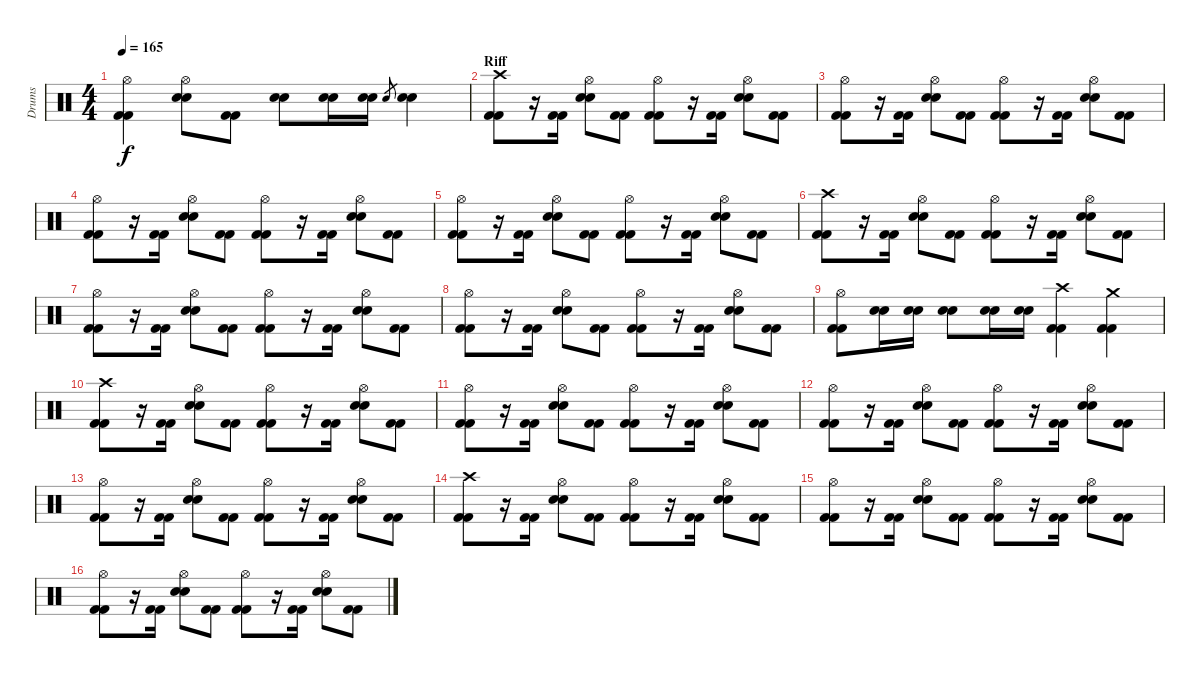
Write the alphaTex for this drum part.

\track ("Drums" "Drums") {instrument percussion}
\staff {score}
\articulation defaults
\ts (4 4)
\tempo 165
\clef neutral
\ks c
("Hi-Hat (open)" "Kick (hit) 2" "Kick (hit) 2").4{dy f} ("Hi-Hat (open)" "Snare (hit) 2" "Snare (hit) 2").8 ("Kick (hit) 2" "Kick (hit) 2").8 ("Snare (hit) 2" "Snare (hit) 2").8 ("Snare (hit) 2" "Snare (hit) 2").16 ("Snare (hit) 2" "Snare (hit) 2").16 "Snare (hit) 2".8{gr} ("Snare (hit) 2" "Snare (hit) 2").4 |
\section ("" "Riff")
("Crash high (hit)" "Kick (hit) 2" "Kick (hit) 2").8 r.16 ("Kick (hit) 2" "Kick (hit) 2").16 ("Hi-Hat (open)" "Snare (hit) 2" "Snare (hit) 2").8 ("Kick (hit) 2" "Kick (hit) 2").8 ("Hi-Hat (open)" "Kick (hit) 2" "Kick (hit) 2").8 r.16 ("Kick (hit) 2" "Kick (hit) 2").16 ("Hi-Hat (open)" "Snare (hit) 2" "Snare (hit) 2").8 ("Kick (hit) 2" "Kick (hit) 2").8 |
("Hi-Hat (open)" "Kick (hit) 2" "Kick (hit) 2").8 r.16 ("Kick (hit) 2" "Kick (hit) 2").16 ("Hi-Hat (open)" "Snare (hit) 2" "Snare (hit) 2").8 ("Kick (hit) 2" "Kick (hit) 2").8 ("Hi-Hat (open)" "Kick (hit) 2" "Kick (hit) 2").8 r.16 ("Kick (hit) 2" "Kick (hit) 2").16 ("Hi-Hat (open)" "Snare (hit) 2" "Snare (hit) 2").8 ("Kick (hit) 2" "Kick (hit) 2").8 |
("Hi-Hat (open)" "Kick (hit) 2" "Kick (hit) 2").8 r.16 ("Kick (hit) 2" "Kick (hit) 2").16 ("Hi-Hat (open)" "Snare (hit) 2" "Snare (hit) 2").8 ("Kick (hit) 2" "Kick (hit) 2").8 ("Hi-Hat (open)" "Kick (hit) 2" "Kick (hit) 2").8 r.16 ("Kick (hit) 2" "Kick (hit) 2").16 ("Hi-Hat (open)" "Snare (hit) 2" "Snare (hit) 2").8 ("Kick (hit) 2" "Kick (hit) 2").8 |
("Hi-Hat (open)" "Kick (hit) 2" "Kick (hit) 2").8 r.16 ("Kick (hit) 2" "Kick (hit) 2").16 ("Hi-Hat (open)" "Snare (hit) 2" "Snare (hit) 2").8 ("Kick (hit) 2" "Kick (hit) 2").8 ("Hi-Hat (open)" "Kick (hit) 2" "Kick (hit) 2").8 r.16 ("Kick (hit) 2" "Kick (hit) 2").16 ("Hi-Hat (open)" "Snare (hit) 2" "Snare (hit) 2").8 ("Kick (hit) 2" "Kick (hit) 2").8 |
("Crash high (hit)" "Kick (hit) 2" "Kick (hit) 2").8 r.16 ("Kick (hit) 2" "Kick (hit) 2").16 ("Hi-Hat (open)" "Snare (hit) 2" "Snare (hit) 2").8 ("Kick (hit) 2" "Kick (hit) 2").8 ("Hi-Hat (open)" "Kick (hit) 2" "Kick (hit) 2").8 r.16 ("Kick (hit) 2" "Kick (hit) 2").16 ("Hi-Hat (open)" "Snare (hit) 2" "Snare (hit) 2").8 ("Kick (hit) 2" "Kick (hit) 2").8 |
("Hi-Hat (open)" "Kick (hit) 2" "Kick (hit) 2").8 r.16 ("Kick (hit) 2" "Kick (hit) 2").16 ("Hi-Hat (open)" "Snare (hit) 2" "Snare (hit) 2").8 ("Kick (hit) 2" "Kick (hit) 2").8 ("Hi-Hat (open)" "Kick (hit) 2" "Kick (hit) 2").8 r.16 ("Kick (hit) 2" "Kick (hit) 2").16 ("Hi-Hat (open)" "Snare (hit) 2" "Snare (hit) 2").8 ("Kick (hit) 2" "Kick (hit) 2").8 |
("Hi-Hat (open)" "Kick (hit) 2" "Kick (hit) 2").8 r.16 ("Kick (hit) 2" "Kick (hit) 2").16 ("Hi-Hat (open)" "Snare (hit) 2" "Snare (hit) 2").8 ("Kick (hit) 2" "Kick (hit) 2").8 ("Hi-Hat (open)" "Kick (hit) 2" "Kick (hit) 2").8 r.16 ("Kick (hit) 2" "Kick (hit) 2").16 ("Hi-Hat (open)" "Snare (hit) 2" "Snare (hit) 2").8 ("Kick (hit) 2" "Kick (hit) 2").8 |
("Hi-Hat (open)" "Kick (hit) 2" "Kick (hit) 2").8 ("Snare (hit) 2" "Snare (hit) 2").16 ("Snare (hit) 2" "Snare (hit) 2").16 ("Snare (hit) 2" "Snare (hit) 2").8 ("Snare (hit) 2" "Snare (hit) 2").16 ("Snare (hit) 2" "Snare (hit) 2").16 ("Crash high (hit)" "Kick (hit) 2" "Kick (hit) 2").4 ("Crash medium (hit)" "Kick (hit) 2" "Kick (hit) 2").4 |
("Crash high (hit)" "Kick (hit) 2" "Kick (hit) 2").8 r.16 ("Kick (hit) 2" "Kick (hit) 2").16 ("Hi-Hat (open)" "Snare (hit) 2" "Snare (hit) 2").8 ("Kick (hit) 2" "Kick (hit) 2").8 ("Hi-Hat (open)" "Kick (hit) 2" "Kick (hit) 2").8 r.16 ("Kick (hit) 2" "Kick (hit) 2").16 ("Hi-Hat (open)" "Snare (hit) 2" "Snare (hit) 2").8 ("Kick (hit) 2" "Kick (hit) 2").8 |
("Hi-Hat (open)" "Kick (hit) 2" "Kick (hit) 2").8 r.16 ("Kick (hit) 2" "Kick (hit) 2").16 ("Hi-Hat (open)" "Snare (hit) 2" "Snare (hit) 2").8 ("Kick (hit) 2" "Kick (hit) 2").8 ("Hi-Hat (open)" "Kick (hit) 2" "Kick (hit) 2").8 r.16 ("Kick (hit) 2" "Kick (hit) 2").16 ("Hi-Hat (open)" "Snare (hit) 2" "Snare (hit) 2").8 ("Kick (hit) 2" "Kick (hit) 2").8 |
("Hi-Hat (open)" "Kick (hit) 2" "Kick (hit) 2").8 r.16 ("Kick (hit) 2" "Kick (hit) 2").16 ("Hi-Hat (open)" "Snare (hit) 2" "Snare (hit) 2").8 ("Kick (hit) 2" "Kick (hit) 2").8 ("Hi-Hat (open)" "Kick (hit) 2" "Kick (hit) 2").8 r.16 ("Kick (hit) 2" "Kick (hit) 2").16 ("Hi-Hat (open)" "Snare (hit) 2" "Snare (hit) 2").8 ("Kick (hit) 2" "Kick (hit) 2").8 |
("Hi-Hat (open)" "Kick (hit) 2" "Kick (hit) 2").8 r.16 ("Kick (hit) 2" "Kick (hit) 2").16 ("Hi-Hat (open)" "Snare (hit) 2" "Snare (hit) 2").8 ("Kick (hit) 2" "Kick (hit) 2").8 ("Hi-Hat (open)" "Kick (hit) 2" "Kick (hit) 2").8 r.16 ("Kick (hit) 2" "Kick (hit) 2").16 ("Hi-Hat (open)" "Snare (hit) 2" "Snare (hit) 2").8 ("Kick (hit) 2" "Kick (hit) 2").8 |
("Crash high (hit)" "Kick (hit) 2" "Kick (hit) 2").8 r.16 ("Kick (hit) 2" "Kick (hit) 2").16 ("Hi-Hat (open)" "Snare (hit) 2" "Snare (hit) 2").8 ("Kick (hit) 2" "Kick (hit) 2").8 ("Hi-Hat (open)" "Kick (hit) 2" "Kick (hit) 2").8 r.16 ("Kick (hit) 2" "Kick (hit) 2").16 ("Hi-Hat (open)" "Snare (hit) 2" "Snare (hit) 2").8 ("Kick (hit) 2" "Kick (hit) 2").8 |
("Hi-Hat (open)" "Kick (hit) 2" "Kick (hit) 2").8 r.16 ("Kick (hit) 2" "Kick (hit) 2").16 ("Hi-Hat (open)" "Snare (hit) 2" "Snare (hit) 2").8 ("Kick (hit) 2" "Kick (hit) 2").8 ("Hi-Hat (open)" "Kick (hit) 2" "Kick (hit) 2").8 r.16 ("Kick (hit) 2" "Kick (hit) 2").16 ("Hi-Hat (open)" "Snare (hit) 2" "Snare (hit) 2").8 ("Kick (hit) 2" "Kick (hit) 2").8 |
("Hi-Hat (open)" "Kick (hit) 2" "Kick (hit) 2").8 r.16 ("Kick (hit) 2" "Kick (hit) 2").16 ("Hi-Hat (open)" "Snare (hit) 2" "Snare (hit) 2").8 ("Kick (hit) 2" "Kick (hit) 2").8 ("Hi-Hat (open)" "Kick (hit) 2" "Kick (hit) 2").8 r.16 ("Kick (hit) 2" "Kick (hit) 2").16 ("Hi-Hat (open)" "Snare (hit) 2" "Snare (hit) 2").8 ("Kick (hit) 2" "Kick (hit) 2").8
